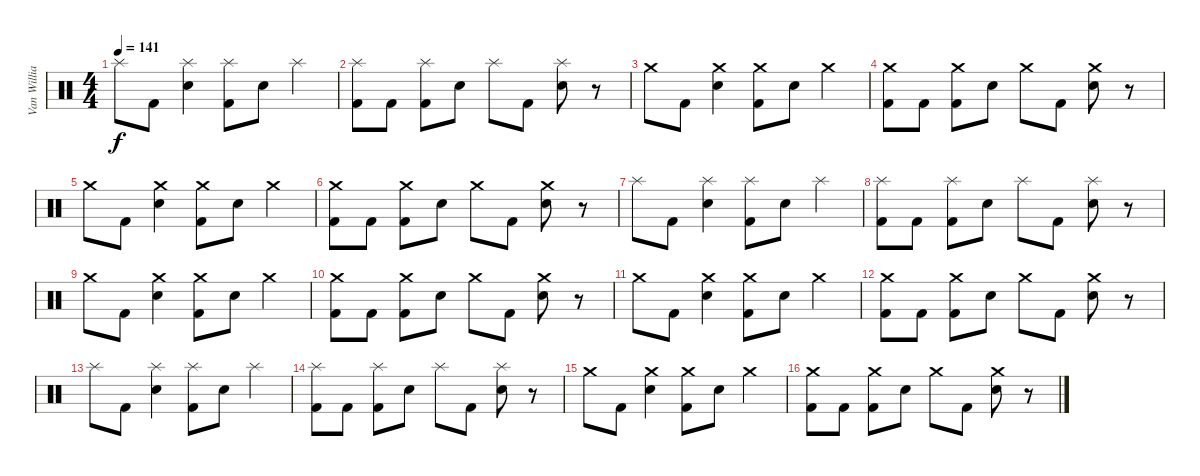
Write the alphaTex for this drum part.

\track ("Van Williams" "Van Willia") {instrument percussion}
\staff {score}
\articulation defaults
\ts (4 4)
\tempo 141
\clef neutral
\ks c "Splash (hit)".8{dy f} "Kick (hit) 2".8
("Splash (hit)" "Electric Snare (hit)").4 ("Splash (hit)" "Kick (hit) 2").8 "Electric Snare (hit)".8 "Splash (hit)".4 |
("Splash (hit)" "Kick (hit) 2").8 "Kick (hit) 2".8 ("Splash (hit)" "Kick (hit) 2").8 "Electric Snare (hit)".8 "Splash (hit)".8 "Kick (hit) 2".8 ("Splash (hit)" "Electric Snare (hit)").8 r.8 |
"Crash medium (hit)".8 "Kick (hit) 2".8 ("Crash medium (hit)" "Electric Snare (hit)").4 ("Crash medium (hit)" "Kick (hit) 2").8 "Electric Snare (hit)".8 "Crash medium (hit)".4 |
("Crash medium (hit)" "Kick (hit) 2").8 "Kick (hit) 2".8 ("Crash medium (hit)" "Kick (hit) 2").8 "Electric Snare (hit)".8 "Crash medium (hit)".8 "Kick (hit) 2".8 ("Crash medium (hit)" "Electric Snare (hit)").8 r.8 |
"Crash medium (hit)".8 "Kick (hit) 2".8 ("Crash medium (hit)" "Electric Snare (hit)").4 ("Crash medium (hit)" "Kick (hit) 2").8 "Electric Snare (hit)".8 "Crash medium (hit)".4 |
("Crash medium (hit)" "Kick (hit) 2").8 "Kick (hit) 2".8 ("Crash medium (hit)" "Kick (hit) 2").8 "Electric Snare (hit)".8 "Crash medium (hit)".8 "Kick (hit) 2".8 ("Crash medium (hit)" "Electric Snare (hit)").8 r.8 |
"Splash (hit)".8 "Kick (hit) 2".8 ("Splash (hit)" "Electric Snare (hit)").4 ("Splash (hit)" "Kick (hit) 2").8 "Electric Snare (hit)".8 "Splash (hit)".4 |
("Splash (hit)" "Kick (hit) 2").8 "Kick (hit) 2".8 ("Splash (hit)" "Kick (hit) 2").8 "Electric Snare (hit)".8 "Splash (hit)".8 "Kick (hit) 2".8 ("Splash (hit)" "Electric Snare (hit)").8 r.8 |
"Crash medium (hit)".8 "Kick (hit) 2".8 ("Crash medium (hit)" "Electric Snare (hit)").4 ("Crash medium (hit)" "Kick (hit) 2").8 "Electric Snare (hit)".8 "Crash medium (hit)".4 |
("Crash medium (hit)" "Kick (hit) 2").8 "Kick (hit) 2".8 ("Crash medium (hit)" "Kick (hit) 2").8 "Electric Snare (hit)".8 "Crash medium (hit)".8 "Kick (hit) 2".8 ("Crash medium (hit)" "Electric Snare (hit)").8 r.8 |
"Crash medium (hit)".8 "Kick (hit) 2".8 ("Crash medium (hit)" "Electric Snare (hit)").4 ("Crash medium (hit)" "Kick (hit) 2").8 "Electric Snare (hit)".8 "Crash medium (hit)".4 |
("Crash medium (hit)" "Kick (hit) 2").8 "Kick (hit) 2".8 ("Crash medium (hit)" "Kick (hit) 2").8 "Electric Snare (hit)".8 "Crash medium (hit)".8 "Kick (hit) 2".8 ("Crash medium (hit)" "Electric Snare (hit)").8 r.8 |
"Splash (hit)".8 "Kick (hit) 2".8 ("Splash (hit)" "Electric Snare (hit)").4 ("Splash (hit)" "Kick (hit) 2").8 "Electric Snare (hit)".8 "Splash (hit)".4 |
("Splash (hit)" "Kick (hit) 2").8 "Kick (hit) 2".8 ("Splash (hit)" "Kick (hit) 2").8 "Electric Snare (hit)".8 "Splash (hit)".8 "Kick (hit) 2".8 ("Splash (hit)" "Electric Snare (hit)").8 r.8 |
"Crash medium (hit)".8 "Kick (hit) 2".8 ("Crash medium (hit)" "Electric Snare (hit)").4 ("Crash medium (hit)" "Kick (hit) 2").8 "Electric Snare (hit)".8 "Crash medium (hit)".4 |
("Crash medium (hit)" "Kick (hit) 2").8 "Kick (hit) 2".8 ("Crash medium (hit)" "Kick (hit) 2").8 "Electric Snare (hit)".8 "Crash medium (hit)".8 "Kick (hit) 2".8 ("Crash medium (hit)" "Electric Snare (hit)").8 r.8
